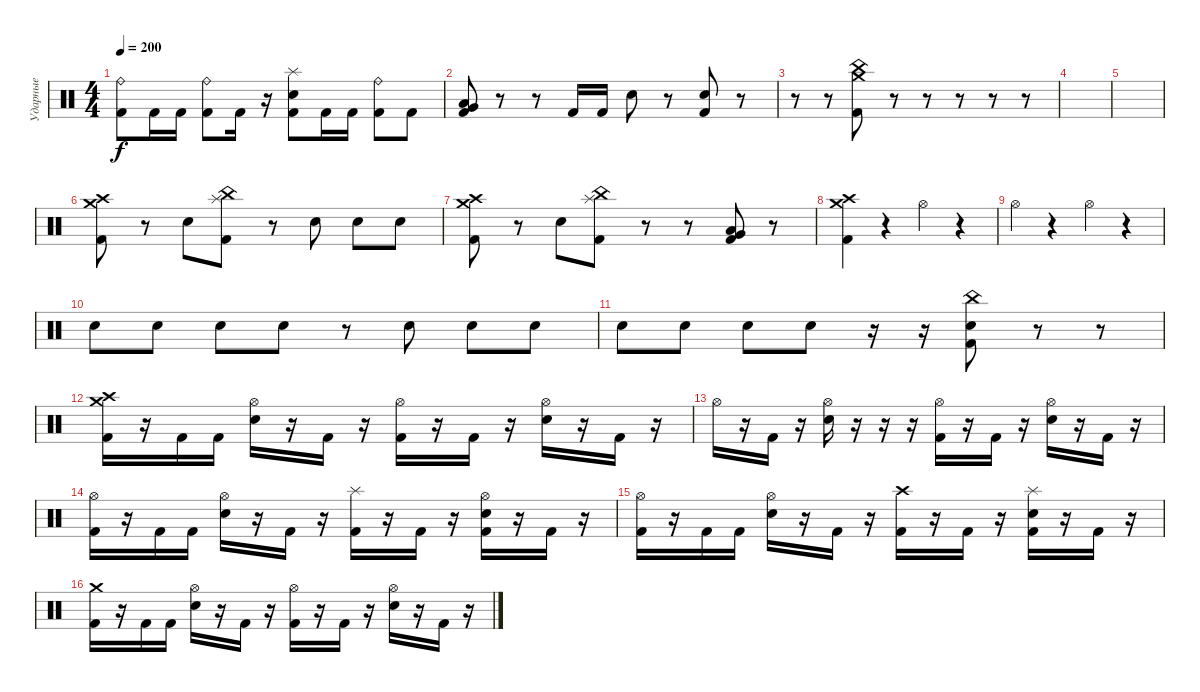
\track ("Ударные" "Ударные") {instrument percussion}
\staff {score}
\articulation defaults
\ts (4 4)
\tempo 200
\clef neutral
\ks c
("Kick (hit) 2" "Ride (bell)").8{dy f} "Kick (hit) 2".16 "Kick (hit) 2".16 ("Kick (hit) 2" "Ride (bell)").8 "Kick (hit) 2".16 r.16 ("Kick (hit) 2" "Electric Snare (hit)" "Splash (hit)").8 "Kick (hit) 2".16 "Kick (hit) 2".16 ("Kick (hit) 2" "Ride (bell)").8 "Kick (hit) 2".8 |
("Kick (hit) 2" "Low Floor Tom (hit)" "Very Low Tom (hit)").8 r.8 r.8 "Kick (hit) 2".16 "Kick (hit) 2".16 "Electric Snare (hit)".8 r.8 ("Kick (hit) 2" "Electric Snare (hit)").8 r.8 |
r.8 r.8 ("Kick (hit) 2" "Crash medium (hit)" "China (hit)").8 r.8 r.8 r.8 r.8 r.8 |
|
|
("Kick (hit) 2" "Crash high (hit)" "Crash medium (hit)").8 r.8 "Electric Snare (hit)".8 ("Kick (hit) 2" "China (hit)" "Splash (hit)").8 r.8 "Electric Snare (hit)".8 "Electric Snare (hit)".8 "Electric Snare (hit)".8 |
("Kick (hit) 2" "Crash high (hit)" "Crash medium (hit)").8 r.8 "Electric Snare (hit)".8 ("Kick (hit) 2" "China (hit)" "Splash (hit)").8 r.8 r.8 ("Kick (hit) 2" "Very Low Tom (hit)" "Low Floor Tom (hit)").8 r.8 |
("Kick (hit) 2" "Crash high (hit)" "Crash medium (hit)").4 r.4 "Hi-Hat (open)".4 r.4 |
"Hi-Hat (open)".4 r.4 "Hi-Hat (open)".4 r.4 |
"Electric Snare (hit)".8 "Electric Snare (hit)".8 "Electric Snare (hit)".8 "Electric Snare (hit)".8 r.8 "Electric Snare (hit)".8 "Electric Snare (hit)".8 "Electric Snare (hit)".8 |
"Electric Snare (hit)".8 "Electric Snare (hit)".8 "Electric Snare (hit)".8 "Electric Snare (hit)".8 r.16 r.16 ("Kick (hit) 2" "Electric Snare (hit)" "China (hit)").8 r.8 r.8 |
("Kick (hit) 2" "Crash high (hit)" "Crash medium (hit)").16 r.16 "Kick (hit) 2".16 "Kick (hit) 2".16 ("Electric Snare (hit)" "Hi-Hat (open)").16 r.16 "Kick (hit) 2".16 r.16 ("Kick (hit) 2" "Hi-Hat (open)").16 r.16 "Kick (hit) 2".16 r.16 ("Electric Snare (hit)" "Hi-Hat (open)").16 r.16 "Kick (hit) 2".16 r.16 |
"Hi-Hat (open)".16 r.16 "Kick (hit) 2".16 r.16 ("Electric Snare (hit)" "Hi-Hat (open)").16 r.16 r.16 r.16 ("Kick (hit) 2" "Hi-Hat (open)").16 r.16 "Kick (hit) 2".16 r.16 ("Electric Snare (hit)" "Hi-Hat (open)").16 r.16 "Kick (hit) 2".16 r.16 |
("Kick (hit) 2" "Hi-Hat (open)").16 r.16 "Kick (hit) 2".16 "Kick (hit) 2".16 ("Electric Snare (hit)" "Hi-Hat (open)").16 r.16 "Kick (hit) 2".16 r.16 ("Kick (hit) 2" "Splash (hit)").16 r.16 "Kick (hit) 2".16 r.16 ("Kick (hit) 2" "Electric Snare (hit)" "Hi-Hat (open)").16 r.16 "Kick (hit) 2".16 r.16 |
("Kick (hit) 2" "Hi-Hat (open)").16 r.16 "Kick (hit) 2".16 "Kick (hit) 2".16 ("Electric Snare (hit)" "Hi-Hat (open)").16 r.16 "Kick (hit) 2".16 r.16 ("Kick (hit) 2" "Crash high (hit)").16 r.16 "Kick (hit) 2".16 r.16 ("Kick (hit) 2" "Electric Snare (hit)" "Splash (hit)").16 r.16 "Kick (hit) 2".16 r.16 |
("Kick (hit) 2" "Crash medium (hit)").16 r.16 "Kick (hit) 2".16 "Kick (hit) 2".16 ("Electric Snare (hit)" "Hi-Hat (open)").16 r.16 "Kick (hit) 2".16 r.16 ("Kick (hit) 2" "Hi-Hat (open)").16 r.16 "Kick (hit) 2".16 r.16 ("Electric Snare (hit)" "Hi-Hat (open)").16 r.16 "Kick (hit) 2".16 r.16
